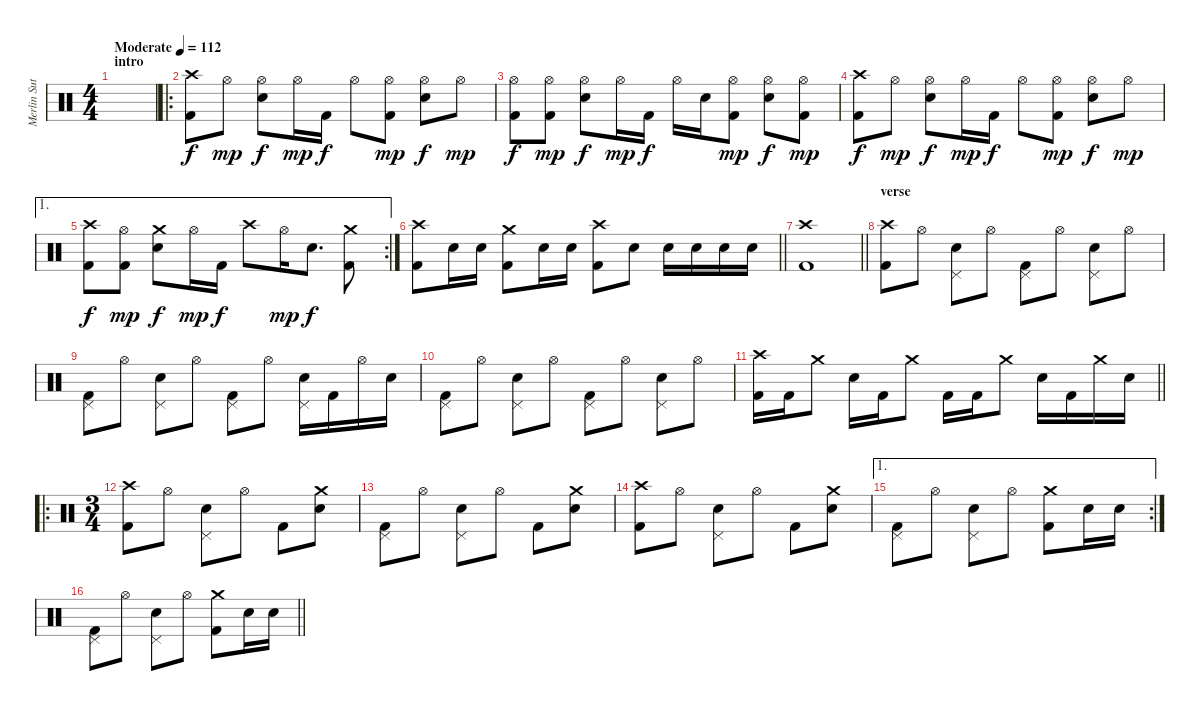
\track ("Merlin Sutter" "Merlin Sut") {instrument percussion}
\staff {score}
\articulation defaults
\ts (4 4)
\section ("" "intro")
\tempo (112 "Moderate")
\clef neutral
\ks c
|
\ro
("Crash high (hit)" "Kick (hit) 2").8 "Hi-Hat (open)".8{dy mp} ("Hi-Hat (open)" "Snare (hit) 2").8{dy f} "Hi-Hat (open)".16{dy mp} "Kick (hit) 2".16{dy f} "Hi-Hat (open)".8 ("Hi-Hat (open)" "Kick (hit) 2").8{dy mp} ("Hi-Hat (open)" "Snare (hit) 2").8{dy f} "Hi-Hat (open)".8{dy mp} |
("Hi-Hat (open)" "Kick (hit) 2").8{dy f} ("Hi-Hat (open)" "Kick (hit) 2").8{dy mp} ("Hi-Hat (open)" "Snare (hit) 2").8{dy f} "Hi-Hat (open)".16{dy mp} "Kick (hit) 2".16{dy f} "Hi-Hat (open)".16 "Snare (hit) 2".16 ("Hi-Hat (open)" "Kick (hit) 2").8{dy mp} ("Hi-Hat (open)" "Snare (hit) 2").8{dy f} ("Hi-Hat (open)" "Kick (hit) 2").8{dy mp} |
("Crash high (hit)" "Kick (hit) 2").8{dy f} "Hi-Hat (open)".8{dy mp} ("Hi-Hat (open)" "Snare (hit) 2").8{dy f} "Hi-Hat (open)".16{dy mp} "Kick (hit) 2".16{dy f} "Hi-Hat (open)".8 ("Hi-Hat (open)" "Kick (hit) 2").8{dy mp} ("Hi-Hat (open)" "Snare (hit) 2").8{dy f} "Hi-Hat (open)".8{dy mp} |
\ae 1
\rc 2
("Crash high (hit)" "Kick (hit) 2").8{dy f} ("Hi-Hat (open)" "Kick (hit) 2").8{dy mp} ("Crash medium (hit)" "Snare (hit) 2").8{dy f} "Hi-Hat (open)".16{dy mp} "Kick (hit) 2".16{dy f} "Crash high (hit)".8 "Hi-Hat (open)".16{dy mp} "Snare (hit) 2".8{d dy f} ("Crash medium (hit)" "Kick (hit) 2").8 |
\barLineRight lightlight
("Crash high (hit)" "Kick (hit) 2").8 "Snare (hit) 2".16 "Snare (hit) 2".16 ("Crash medium (hit)" "Kick (hit) 2").8 "Snare (hit) 2".16 "Snare (hit) 2".16 ("Crash high (hit)" "Kick (hit) 2").8 "Snare (hit) 2".8 "Snare (hit) 2".16 "Snare (hit) 2".16 "Snare (hit) 2".16 "Snare (hit) 2".16 |
\section ("" "")
\barLineRight lightlight
("Crash high (hit)" "Kick (hit) 2").1 |
\section ("" "verse")
("Crash high (hit)" "Kick (hit) 2").8 "Hi-Hat (open)".8 ("Pedal Hi-Hat (hit)" "Snare (hit) 2").8 "Hi-Hat (open)".8 ("Pedal Hi-Hat (hit)" "Kick (hit) 2").8 "Hi-Hat (open)".8 ("Pedal Hi-Hat (hit)" "Snare (hit) 2").8 "Hi-Hat (open)".8 |
("Pedal Hi-Hat (hit)" "Kick (hit) 2").8 "Hi-Hat (open)".8 ("Pedal Hi-Hat (hit)" "Snare (hit) 2").8 "Hi-Hat (open)".8 ("Pedal Hi-Hat (hit)" "Kick (hit) 2").8 "Hi-Hat (open)".8 ("Pedal Hi-Hat (hit)" "Snare (hit) 2").16 "Kick (hit) 2".16 "Hi-Hat (open)".16 "Snare (hit) 2".16 |
("Pedal Hi-Hat (hit)" "Kick (hit) 2").8 "Hi-Hat (open)".8 ("Pedal Hi-Hat (hit)" "Snare (hit) 2").8 "Hi-Hat (open)".8 ("Pedal Hi-Hat (hit)" "Kick (hit) 2").8 "Hi-Hat (open)".8 ("Pedal Hi-Hat (hit)" "Snare (hit) 2").8 "Hi-Hat (open)".8 |
\barLineRight lightlight
("Crash high (hit)" "Kick (hit) 2").16 "Kick (hit) 2".16 "Crash medium (hit)".8 "Snare (hit) 2".16 "Kick (hit) 2".16 "Crash medium (hit)".8 "Kick (hit) 2".16 "Kick (hit) 2".16 "Crash medium (hit)".8 "Snare (hit) 2".16 "Kick (hit) 2".16 "Crash medium (hit)".16 "Snare (hit) 2".16 |
\ro
\ts (3 4)
\section ("" "")
("Crash high (hit)" "Kick (hit) 2").8 "Hi-Hat (open)".8 ("Pedal Hi-Hat (hit)" "Snare (hit) 2").8 "Hi-Hat (open)".8 "Kick (hit) 2".8 ("Crash medium (hit)" "Snare (hit) 2").8 |
("Pedal Hi-Hat (hit)" "Kick (hit) 2").8 "Hi-Hat (open)".8 ("Pedal Hi-Hat (hit)" "Snare (hit) 2").8 "Hi-Hat (open)".8 "Kick (hit) 2".8 ("Crash medium (hit)" "Snare (hit) 2").8 |
("Crash high (hit)" "Kick (hit) 2").8 "Hi-Hat (open)".8 ("Pedal Hi-Hat (hit)" "Snare (hit) 2").8 "Hi-Hat (open)".8 "Kick (hit) 2".8 ("Crash medium (hit)" "Snare (hit) 2").8 |
\ae 1
\rc 2
("Pedal Hi-Hat (hit)" "Kick (hit) 2").8 "Hi-Hat (open)".8 ("Pedal Hi-Hat (hit)" "Snare (hit) 2").8 "Hi-Hat (open)".8 ("Crash medium (hit)" "Kick (hit) 2").8 "Snare (hit) 2".16 "Snare (hit) 2".16 |
\barLineRight lightlight
("Pedal Hi-Hat (hit)" "Kick (hit) 2").8 "Hi-Hat (open)".8 ("Pedal Hi-Hat (hit)" "Snare (hit) 2").8 "Hi-Hat (open)".8 ("Crash medium (hit)" "Kick (hit) 2").8 "Snare (hit) 2".16 "Snare (hit) 2".16
